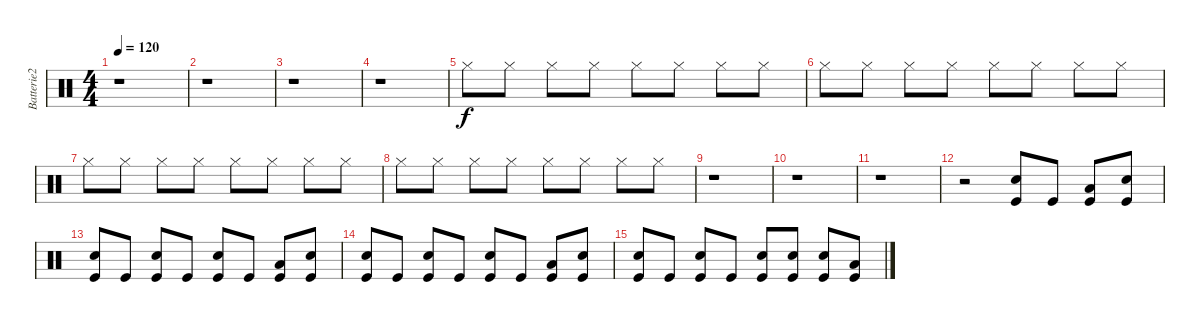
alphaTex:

\track ("Batterie2" "Batterie2") {instrument percussion}
\staff {score}
\articulation defaults
\ts (4 4)
\tempo 120
\clef neutral
\ks c
r.1{dy f} |
r.1 |
r.1 |
r.1 |
"Hi-Hat (closed)".8 "Hi-Hat (closed)".8 "Hi-Hat (closed)".8 "Hi-Hat (closed)".8 "Hi-Hat (closed)".8 "Hi-Hat (closed)".8 "Hi-Hat (closed)".8 "Hi-Hat (closed)".8 |
"Hi-Hat (closed)".8 "Hi-Hat (closed)".8 "Hi-Hat (closed)".8 "Hi-Hat (closed)".8 "Hi-Hat (closed)".8 "Hi-Hat (closed)".8 "Hi-Hat (closed)".8 "Hi-Hat (closed)".8 |
"Hi-Hat (closed)".8 "Hi-Hat (closed)".8 "Hi-Hat (closed)".8 "Hi-Hat (closed)".8 "Hi-Hat (closed)".8 "Hi-Hat (closed)".8 "Hi-Hat (closed)".8 "Hi-Hat (closed)".8 |
"Hi-Hat (closed)".8 "Hi-Hat (closed)".8 "Hi-Hat (closed)".8 "Hi-Hat (closed)".8 "Hi-Hat (closed)".8 "Hi-Hat (closed)".8 "Hi-Hat (closed)".8 "Hi-Hat (closed)".8 |
r.1 |
r.1 |
r.1 |
r.2 ("Electric Snare (hit)" "Kick (hit)").8 "Kick (hit)".8 ("Low Floor Tom (hit)" "Kick (hit)").8 ("Electric Snare (hit)" "Kick (hit)").8 |
("Electric Snare (hit)" "Kick (hit)").8 "Kick (hit)".8 ("Electric Snare (hit)" "Kick (hit)").8 "Kick (hit)".8 ("Electric Snare (hit)" "Kick (hit)").8 "Kick (hit)".8 ("Low Floor Tom (hit)" "Kick (hit)").8 ("Electric Snare (hit)" "Kick (hit)").8 |
("Electric Snare (hit)" "Kick (hit)").8 "Kick (hit)".8 ("Electric Snare (hit)" "Kick (hit)").8 "Kick (hit)".8 ("Electric Snare (hit)" "Kick (hit)").8 "Kick (hit)".8 ("Low Floor Tom (hit)" "Kick (hit)").8 ("Electric Snare (hit)" "Kick (hit)").8 |
("Electric Snare (hit)" "Kick (hit)").8 "Kick (hit)".8 ("Electric Snare (hit)" "Kick (hit)").8 "Kick (hit)".8 ("Electric Snare (hit)" "Kick (hit)").8 ("Electric Snare (hit)" "Kick (hit)").8 ("Electric Snare (hit)" "Kick (hit)").8 ("Low Floor Tom (hit)" "Kick (hit)").8
